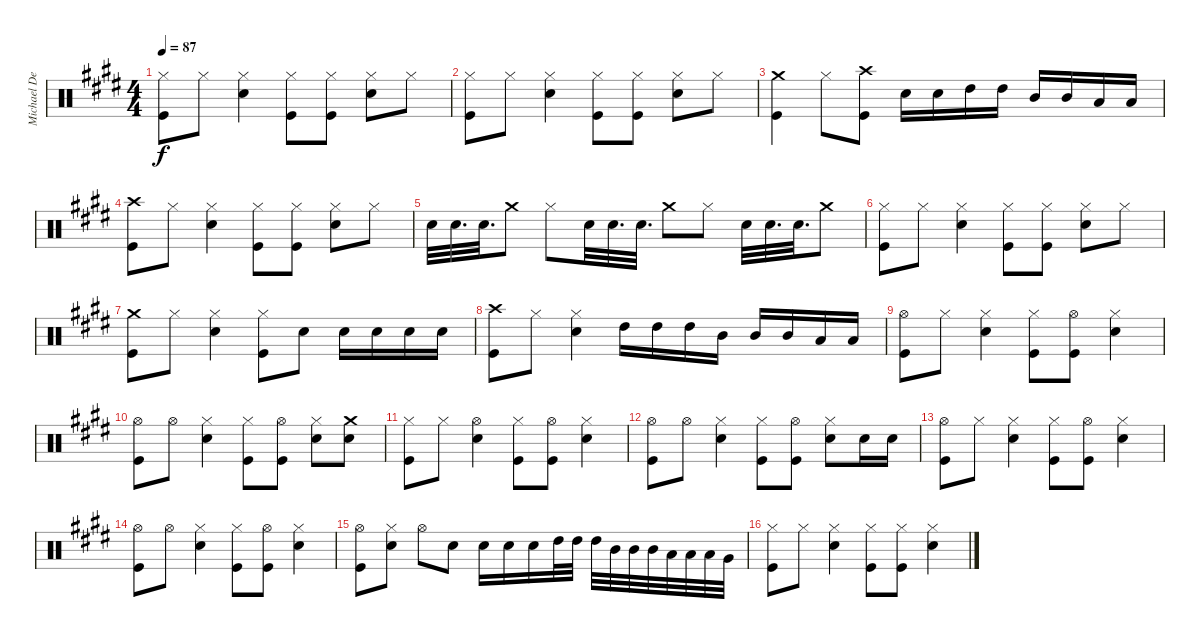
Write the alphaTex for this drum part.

\track ("Michael Derosier Drums" "Michael De") {instrument percussion}
\staff {score}
\articulation defaults
\ts (4 4)
\tempo 87
\clef neutral
\ks e
("Hi-Hat (closed)" "Kick (hit)").8{dy f} "Hi-Hat (closed)".8 ("Hi-Hat (closed)" "Snare (hit) 2").4 ("Hi-Hat (closed)" "Kick (hit)").8 ("Hi-Hat (closed)" "Kick (hit)").8 ("Hi-Hat (closed)" "Snare (hit) 2").8 "Hi-Hat (closed)".8 |
("Hi-Hat (closed)" "Kick (hit)").8 "Hi-Hat (closed)".8 ("Hi-Hat (closed)" "Snare (hit) 2").4 ("Hi-Hat (closed)" "Kick (hit)").8 ("Hi-Hat (closed)" "Kick (hit)").8 ("Hi-Hat (closed)" "Snare (hit) 2").8 "Hi-Hat (closed)".8 |
("Crash medium (hit)" "Kick (hit)").4 "Hi-Hat (closed)".8 ("Crash high (hit)" "Kick (hit)").8 "Snare (hit) 2".16 "Snare (hit) 2".16 "High Tom (hit)".16 "High Tom (hit)".16 "Mid Tom (hit)".16 "Mid Tom (hit)".16 "Low Tom (hit)".16 "Low Tom (hit)".16 |
("Crash high (hit)" "Kick (hit)").8 "Hi-Hat (closed)".8 ("Hi-Hat (closed)" "Snare (hit) 2").4 ("Hi-Hat (closed)" "Kick (hit)").8 ("Hi-Hat (closed)" "Kick (hit)").8 ("Hi-Hat (closed)" "Snare (hit) 2").8 "Hi-Hat (closed)".8 |
"Snare (hit) 2".32 "Snare (hit) 2".32{d} "Snare (hit) 2".32{d} "Crash medium (hit)".8 "Hi-Hat (closed)".8 "Snare (hit) 2".32 "Snare (hit) 2".32{d} "Snare (hit) 2".32{d} "Crash medium (hit)".8 "Hi-Hat (closed)".8 "Snare (hit) 2".32 "Snare (hit) 2".32{d} "Snare (hit) 2".32{d} "Crash medium (hit)".8 |
("Hi-Hat (closed)" "Kick (hit)").8 "Hi-Hat (closed)".8 ("Hi-Hat (closed)" "Snare (hit) 2").4 ("Hi-Hat (closed)" "Kick (hit)").8 ("Hi-Hat (closed)" "Kick (hit)").8 ("Hi-Hat (closed)" "Snare (hit) 2").8 "Hi-Hat (closed)".8 |
("Crash medium (hit)" "Kick (hit)").8 "Hi-Hat (closed)".8 ("Hi-Hat (closed)" "Snare (hit) 2").4 ("Hi-Hat (closed)" "Kick (hit)").8 "Snare (hit) 2".8 "Snare (hit) 2".16 "Snare (hit) 2".16 "Snare (hit) 2".16 "Snare (hit) 2".16 |
("Crash high (hit)" "Kick (hit)").8 "Hi-Hat (closed)".8 ("Hi-Hat (closed)" "Snare (hit) 2").4 "High Tom (hit)".16 "High Tom (hit)".16 "High Tom (hit)".16 "Mid Tom (hit)".16 "Mid Tom (hit)".16 "Mid Tom (hit)".16 "Low Tom (hit)".16 "Low Tom (hit)".16 |
("Hi-Hat (open)" "Kick (hit)").8 "Hi-Hat (closed)".8 ("Hi-Hat (closed)" "Snare (hit) 2").4 ("Hi-Hat (closed)" "Kick (hit)").8 ("Hi-Hat (open)" "Kick (hit)").8 ("Hi-Hat (closed)" "Snare (hit) 2").4 |
("Hi-Hat (open)" "Kick (hit)").8 "Hi-Hat (open)".8 ("Hi-Hat (closed)" "Snare (hit) 2").4 ("Hi-Hat (closed)" "Kick (hit)").8 ("Hi-Hat (open)" "Kick (hit)").8 ("Hi-Hat (closed)" "Snare (hit) 2").8 ("Crash medium (hit)" "Snare (hit) 2").8 |
("Hi-Hat (closed)" "Kick (hit)").8 "Hi-Hat (closed)".8 ("Hi-Hat (open)" "Snare (hit) 2").4 ("Hi-Hat (closed)" "Kick (hit)").8 ("Hi-Hat (open)" "Kick (hit)").8 ("Hi-Hat (closed)" "Snare (hit) 2").4 |
("Hi-Hat (open)" "Kick (hit)").8 "Hi-Hat (open)".8 ("Hi-Hat (closed)" "Snare (hit) 2").4 ("Hi-Hat (closed)" "Kick (hit)").8 ("Hi-Hat (open)" "Kick (hit)").8 ("Hi-Hat (closed)" "Snare (hit) 2").8 "Snare (hit) 2".16 "Snare (hit) 2".16 |
("Hi-Hat (open)" "Kick (hit)").8 "Hi-Hat (closed)".8 ("Hi-Hat (closed)" "Snare (hit) 2").4 ("Hi-Hat (closed)" "Kick (hit)").8 ("Hi-Hat (open)" "Kick (hit)").8 ("Hi-Hat (closed)" "Snare (hit) 2").4 |
("Hi-Hat (open)" "Kick (hit)").8 "Hi-Hat (open)".8 ("Hi-Hat (closed)" "Snare (hit) 2").4 ("Hi-Hat (closed)" "Kick (hit)").8 ("Hi-Hat (open)" "Kick (hit)").8 ("Hi-Hat (closed)" "Snare (hit) 2").4 |
("Hi-Hat (open)" "Kick (hit)").8 ("Hi-Hat (closed)" "Snare (hit) 2").8 "Hi-Hat (open)".8 "Snare (hit) 2".8 "Snare (hit) 2".16 "Snare (hit) 2".16 "Snare (hit) 2".16 "High Tom (hit)".32 "High Tom (hit)".32 "High Tom (hit)".32 "Mid Tom (hit)".32 "Mid Tom (hit)".32 "Mid Tom (hit)".32 "Low Tom (hit)".32 "Low Tom (hit)".32 "Low Tom (hit)".32 "Very Low Tom (hit)".32 |
("Hi-Hat (closed)" "Kick (hit)").8 "Hi-Hat (closed)".8 ("Hi-Hat (closed)" "Snare (hit) 2").4 ("Hi-Hat (closed)" "Kick (hit)").8 ("Hi-Hat (closed)" "Kick (hit)").8 ("Hi-Hat (closed)" "Snare (hit) 2").4
